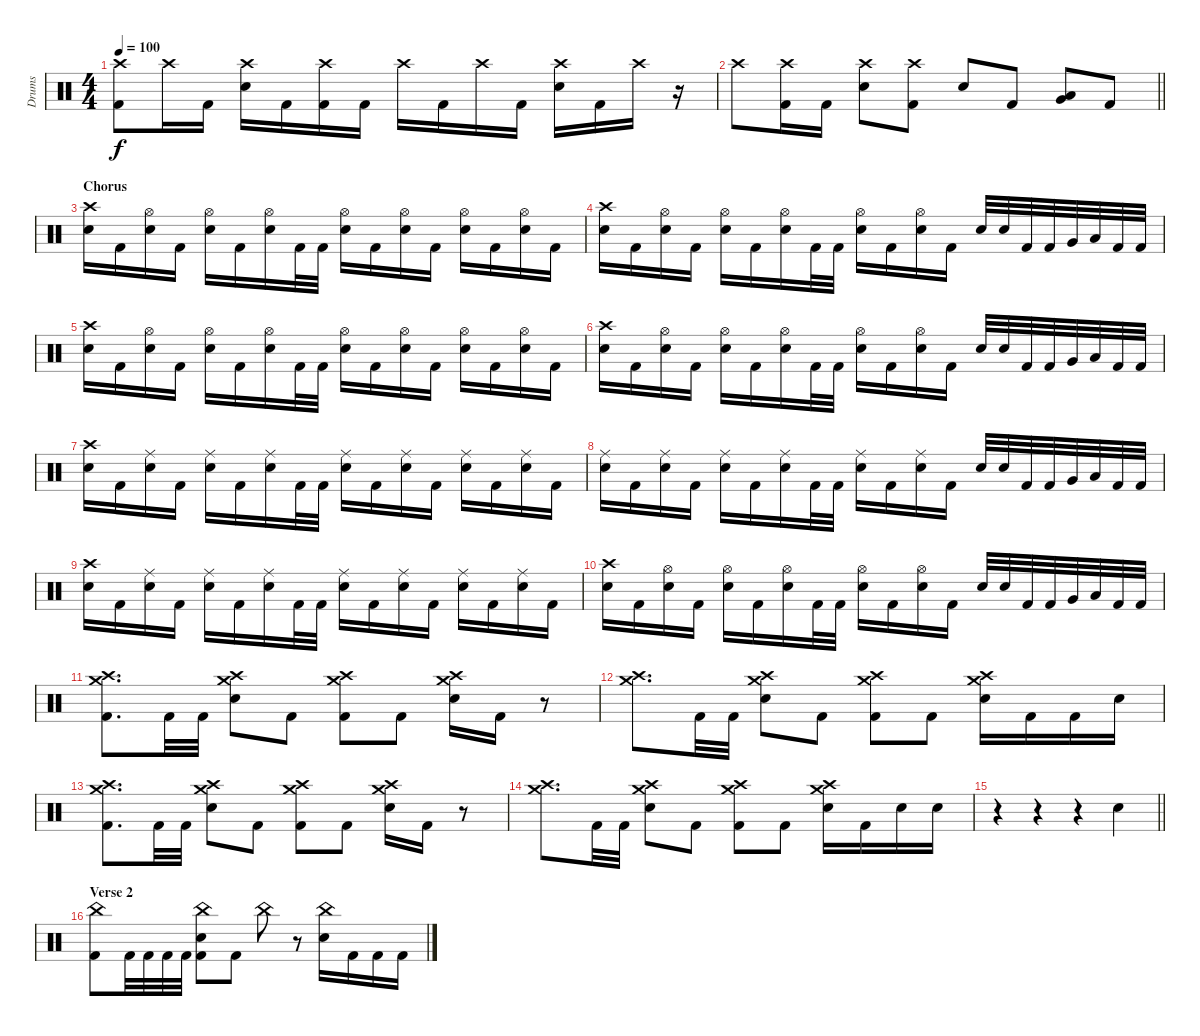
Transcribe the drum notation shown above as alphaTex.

\track ("Drums" "Drums") {instrument percussion}
\staff {score}
\articulation defaults
\ts (4 4)
\tempo 100
\clef neutral
\ks c
("Kick (hit) 2" "Crash high (hit)").8{dy f} "Crash high (hit)".16 "Kick (hit) 2".16 ("Electric Snare (hit)" "Crash high (hit)").16 "Kick (hit) 2".16 ("Kick (hit) 2" "Crash high (hit)").16 "Kick (hit) 2".16 "Crash high (hit)".16 "Kick (hit) 2".16 "Crash high (hit)".16 "Kick (hit) 2".16 ("Crash high (hit)" "Electric Snare (hit)").16 "Kick (hit) 2".16 "Crash high (hit)".16 r.16 |
\barLineRight lightlight "Crash high (hit)".8
("Kick (hit) 2" "Crash high (hit)").16 "Kick (hit) 2".16 ("Electric Snare (hit)" "Crash high (hit)").8 ("Kick (hit) 2" "Crash high (hit)").8 "Electric Snare (hit)".8 "Kick (hit) 2".8 ("Very Low Tom (hit)" "Low Floor Tom (hit)").8 "Kick (hit) 2".8 |
\section ("" "Chorus")
("Electric Snare (hit)" "Crash high (hit)").16 "Kick (hit) 2".16 ("Electric Snare (hit)" "Hi-Hat (open)").16 "Kick (hit) 2".16 ("Electric Snare (hit)" "Hi-Hat (open)").16 "Kick (hit) 2".16 ("Electric Snare (hit)" "Hi-Hat (open)").16 "Kick (hit) 2".32 "Kick (hit) 2".32 ("Electric Snare (hit)" "Hi-Hat (open)").16 "Kick (hit) 2".16 ("Electric Snare (hit)" "Hi-Hat (open)").16 "Kick (hit) 2".16 ("Electric Snare (hit)" "Hi-Hat (open)").16 "Kick (hit) 2".16 ("Electric Snare (hit)" "Hi-Hat (open)").16 "Kick (hit) 2".16 |
("Electric Snare (hit)" "Crash high (hit)").16 "Kick (hit) 2".16 ("Electric Snare (hit)" "Hi-Hat (open)").16 "Kick (hit) 2".16 ("Electric Snare (hit)" "Hi-Hat (open)").16 "Kick (hit) 2".16 ("Electric Snare (hit)" "Hi-Hat (open)").16 "Kick (hit) 2".32 "Kick (hit) 2".32 ("Electric Snare (hit)" "Hi-Hat (open)").16 "Kick (hit) 2".16 ("Electric Snare (hit)" "Hi-Hat (open)").16 "Kick (hit) 2".16 "Electric Snare (hit)".32 "Electric Snare (hit)".32 "Kick (hit) 2".32 "Kick (hit) 2".32 "Very Low Tom (hit)".32 "Low Floor Tom (hit)".32 "Kick (hit) 2".32 "Kick (hit) 2".32 |
("Electric Snare (hit)" "Crash high (hit)").16 "Kick (hit) 2".16 ("Electric Snare (hit)" "Hi-Hat (open)").16 "Kick (hit) 2".16 ("Electric Snare (hit)" "Hi-Hat (open)").16 "Kick (hit) 2".16 ("Electric Snare (hit)" "Hi-Hat (open)").16 "Kick (hit) 2".32 "Kick (hit) 2".32 ("Electric Snare (hit)" "Hi-Hat (open)").16 "Kick (hit) 2".16 ("Electric Snare (hit)" "Hi-Hat (open)").16 "Kick (hit) 2".16 ("Electric Snare (hit)" "Hi-Hat (open)").16 "Kick (hit) 2".16 ("Electric Snare (hit)" "Hi-Hat (open)").16 "Kick (hit) 2".16 |
("Electric Snare (hit)" "Crash high (hit)").16 "Kick (hit) 2".16 ("Electric Snare (hit)" "Hi-Hat (open)").16 "Kick (hit) 2".16 ("Electric Snare (hit)" "Hi-Hat (open)").16 "Kick (hit) 2".16 ("Electric Snare (hit)" "Hi-Hat (open)").16 "Kick (hit) 2".32 "Kick (hit) 2".32 ("Electric Snare (hit)" "Hi-Hat (open)").16 "Kick (hit) 2".16 ("Electric Snare (hit)" "Hi-Hat (open)").16 "Kick (hit) 2".16 "Electric Snare (hit)".32 "Electric Snare (hit)".32 "Kick (hit) 2".32 "Kick (hit) 2".32 "Very Low Tom (hit)".32 "Low Floor Tom (hit)".32 "Kick (hit) 2".32 "Kick (hit) 2".32 |
("Electric Snare (hit)" "Crash high (hit)").16 "Kick (hit) 2".16 ("Electric Snare (hit)" "Ride (middle)").16 "Kick (hit) 2".16 ("Electric Snare (hit)" "Ride (middle)").16 "Kick (hit) 2".16 ("Electric Snare (hit)" "Ride (middle)").16 "Kick (hit) 2".32 "Kick (hit) 2".32 ("Electric Snare (hit)" "Ride (middle)").16 "Kick (hit) 2".16 ("Electric Snare (hit)" "Ride (middle)").16 "Kick (hit) 2".16 ("Electric Snare (hit)" "Ride (middle)").16 "Kick (hit) 2".16 ("Electric Snare (hit)" "Ride (middle)").16 "Kick (hit) 2".16 |
("Electric Snare (hit)" "Ride (middle)").16 "Kick (hit) 2".16 ("Electric Snare (hit)" "Ride (middle)").16 "Kick (hit) 2".16 ("Electric Snare (hit)" "Ride (middle)").16 "Kick (hit) 2".16 ("Electric Snare (hit)" "Ride (middle)").16 "Kick (hit) 2".32 "Kick (hit) 2".32 ("Electric Snare (hit)" "Ride (middle)").16 "Kick (hit) 2".16 ("Electric Snare (hit)" "Ride (middle)").16 "Kick (hit) 2".16 "Electric Snare (hit)".32 "Electric Snare (hit)".32 "Kick (hit) 2".32 "Kick (hit) 2".32 "Very Low Tom (hit)".32 "Low Floor Tom (hit)".32 "Kick (hit) 2".32 "Kick (hit) 2".32 |
("Electric Snare (hit)" "Crash high (hit)").16 "Kick (hit) 2".16 ("Electric Snare (hit)" "Ride (middle)").16 "Kick (hit) 2".16 ("Electric Snare (hit)" "Ride (middle)").16 "Kick (hit) 2".16 ("Electric Snare (hit)" "Ride (middle)").16 "Kick (hit) 2".32 "Kick (hit) 2".32 ("Electric Snare (hit)" "Ride (middle)").16 "Kick (hit) 2".16 ("Electric Snare (hit)" "Ride (middle)").16 "Kick (hit) 2".16 ("Electric Snare (hit)" "Ride (middle)").16 "Kick (hit) 2".16 ("Electric Snare (hit)" "Ride (middle)").16 "Kick (hit) 2".16 |
("Electric Snare (hit)" "Crash high (hit)").16 "Kick (hit) 2".16 ("Electric Snare (hit)" "Hi-Hat (open)").16 "Kick (hit) 2".16 ("Electric Snare (hit)" "Hi-Hat (open)").16 "Kick (hit) 2".16 ("Electric Snare (hit)" "Hi-Hat (open)").16 "Kick (hit) 2".32 "Kick (hit) 2".32 ("Electric Snare (hit)" "Hi-Hat (open)").16 "Kick (hit) 2".16 ("Electric Snare (hit)" "Hi-Hat (open)").16 "Kick (hit) 2".16 "Electric Snare (hit)".32 "Electric Snare (hit)".32 "Kick (hit) 2".32 "Kick (hit) 2".32 "Very Low Tom (hit)".32 "Low Floor Tom (hit)".32 "Kick (hit) 2".32 "Kick (hit) 2".32 |
("Kick (hit) 2" "Crash medium (hit)" "Crash high (hit)").8{d} "Kick (hit) 2".32 "Kick (hit) 2".32 ("Electric Snare (hit)" "Crash high (hit)" "Crash medium (hit)").8 "Kick (hit) 2".8 ("Kick (hit) 2" "Crash high (hit)" "Crash medium (hit)").8 "Kick (hit) 2".8 ("Electric Snare (hit)" "Crash high (hit)" "Crash medium (hit)").16 "Kick (hit) 2".16 r.8 |
("Crash medium (hit)" "Crash high (hit)").8{d} "Kick (hit) 2".32 "Kick (hit) 2".32 ("Electric Snare (hit)" "Crash high (hit)" "Crash medium (hit)").8 "Kick (hit) 2".8 ("Kick (hit) 2" "Crash high (hit)" "Crash medium (hit)").8 "Kick (hit) 2".8 ("Electric Snare (hit)" "Crash high (hit)" "Crash medium (hit)").16 "Kick (hit) 2".16 "Kick (hit) 2".16 "Electric Snare (hit)".16 |
("Kick (hit) 2" "Crash medium (hit)" "Crash high (hit)").8{d} "Kick (hit) 2".32 "Kick (hit) 2".32 ("Electric Snare (hit)" "Crash high (hit)" "Crash medium (hit)").8 "Kick (hit) 2".8 ("Kick (hit) 2" "Crash high (hit)" "Crash medium (hit)").8 "Kick (hit) 2".8 ("Electric Snare (hit)" "Crash high (hit)" "Crash medium (hit)").16 "Kick (hit) 2".16 r.8 |
("Crash medium (hit)" "Crash high (hit)").8{d} "Kick (hit) 2".32 "Kick (hit) 2".32 ("Electric Snare (hit)" "Crash high (hit)" "Crash medium (hit)").8 "Kick (hit) 2".8 ("Kick (hit) 2" "Crash high (hit)" "Crash medium (hit)").8 "Kick (hit) 2".8 ("Electric Snare (hit)" "Crash high (hit)" "Crash medium (hit)").16 "Kick (hit) 2".16 "Electric Snare (hit)".16 "Electric Snare (hit)".16 |
\barLineRight lightlight
r.4 r.4 r.4 "Electric Snare (hit)".4 |
\section ("" "Verse 2")
("Kick (hit) 2" "China (hit)").8 "Kick (hit) 2".32 "Kick (hit) 2".32 "Kick (hit) 2".32 "Kick (hit) 2".32 ("Kick (hit) 2" "China (hit)" "Electric Snare (hit)").8 "Kick (hit) 2".8 "China (hit)".8 r.8 ("Electric Snare (hit)" "China (hit)").16 "Kick (hit) 2".16 "Kick (hit) 2".16 "Kick (hit) 2".16
